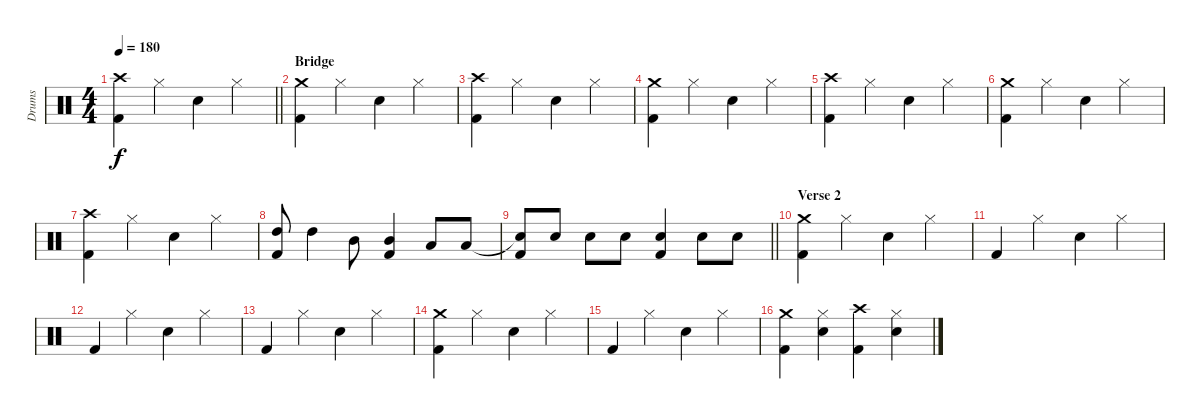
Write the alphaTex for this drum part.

\track ("Drums" "Drums") {instrument percussion}
\staff {score}
\articulation defaults
\ts (4 4)
\tempo 180
\clef neutral
\barLineRight lightlight
\ks c
("Kick (hit) 2" "Crash high (hit)").4{dy f} "Hi-Hat (closed)".4 "Snare (hit) 2".4 "Hi-Hat (closed)".4 |
\section ("" "Bridge")
("Kick (hit) 2" "Crash medium (hit)").4 "Hi-Hat (closed)".4 "Snare (hit) 2".4 "Hi-Hat (closed)".4 |
("Kick (hit) 2" "Crash high (hit)").4 "Hi-Hat (closed)".4 "Snare (hit) 2".4 "Hi-Hat (closed)".4 |
("Kick (hit) 2" "Crash medium (hit)").4 "Hi-Hat (closed)".4 "Snare (hit) 2".4 "Hi-Hat (closed)".4 |
("Kick (hit) 2" "Crash high (hit)").4 "Hi-Hat (closed)".4 "Snare (hit) 2".4 "Hi-Hat (closed)".4 |
("Kick (hit) 2" "Crash medium (hit)").4 "Hi-Hat (closed)".4 "Snare (hit) 2".4 "Hi-Hat (closed)".4 |
("Kick (hit) 2" "Crash high (hit)").4 "Hi-Hat (closed)".4 "Snare (hit) 2".4 "Hi-Hat (closed)".4 |
("High Tom (hit)" "Kick (hit) 2").8 "High Tom (hit)".4 "Mid Tom (hit)".8 ("Mid Tom (hit)" "Kick (hit) 2").4 "Low Tom (hit)".8 "Low Tom (hit)".8 |
\barLineRight lightlight
("Snare (hit)"{t} "Kick (hit) 2").8 "Snare (hit) 2".8 "Snare (hit) 2".8 "Snare (hit) 2".8 ("Snare (hit) 2" "Kick (hit) 2").4 "Snare (hit) 2".8 "Snare (hit) 2".8 |
\section ("" "Verse 2")
("Kick (hit) 2" "Crash medium (hit)").4 "Hi-Hat (closed)".4 "Snare (hit) 2".4 "Hi-Hat (closed)".4 |
"Kick (hit) 2".4 "Hi-Hat (closed)".4 "Snare (hit) 2".4 "Hi-Hat (closed)".4 |
"Kick (hit) 2".4 "Hi-Hat (closed)".4 "Snare (hit) 2".4 "Hi-Hat (closed)".4 |
"Kick (hit) 2".4 "Hi-Hat (closed)".4 "Snare (hit) 2".4 "Hi-Hat (closed)".4 |
("Kick (hit) 2" "Crash medium (hit)").4 "Hi-Hat (closed)".4 "Snare (hit) 2".4 "Hi-Hat (closed)".4 |
"Kick (hit) 2".4 "Hi-Hat (closed)".4 "Snare (hit) 2".4 "Hi-Hat (closed)".4 |
("Kick (hit) 2" "Crash medium (hit)").4 ("Snare (hit) 2" "Hi-Hat (closed)").4 ("Kick (hit) 2" "Crash high (hit)").4 ("Snare (hit) 2" "Hi-Hat (closed)").4
